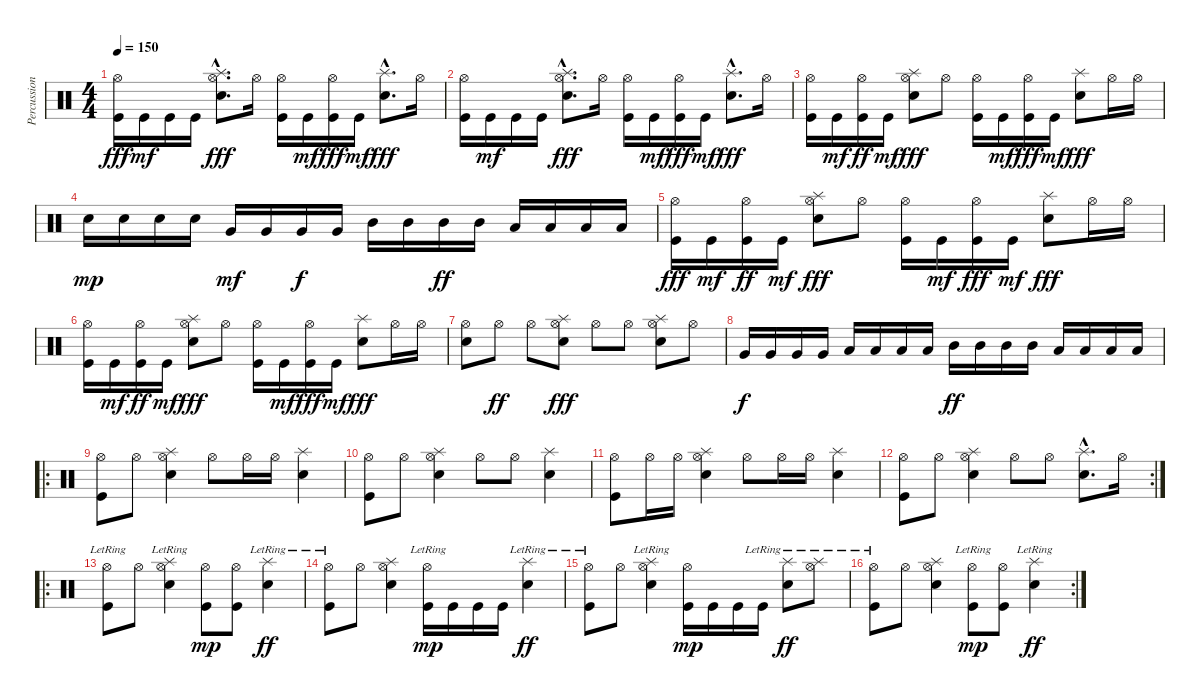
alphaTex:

\track ("Percussion" "Percussion") {instrument percussion}
\staff {score}
\articulation defaults
\ts (4 4)
\tempo 150
\clef neutral
\ks c
("Kick (hit)" "Hi-Hat (open)").16{dy fff} "Kick (hit)".16{dy mf} "Kick (hit)".16 "Kick (hit)".16 ("Snare (hit) 2"{hac} "Splash (hit)"{hac} "Hi-Hat (open)"{hac}).8{d dy fff} "Hi-Hat (open)".16 ("Kick (hit)" "Hi-Hat (open)").16 "Kick (hit)".16{dy mf} ("Kick (hit)" "Hi-Hat (open)").16{dy fff} "Kick (hit)".16{dy mf} ("Snare (hit) 2"{hac} "Splash (hit)"{hac}).8{d dy fff} "Hi-Hat (open)".16 |
("Kick (hit)" "Hi-Hat (open)").16 "Kick (hit)".16{dy mf} "Kick (hit)".16 "Kick (hit)".16 ("Snare (hit) 2"{hac} "Splash (hit)"{hac} "Hi-Hat (open)"{hac}).8{d dy fff} "Hi-Hat (open)".16 ("Kick (hit)" "Hi-Hat (open)").16 "Kick (hit)".16{dy mf} ("Kick (hit)" "Hi-Hat (open)").16{dy fff} "Kick (hit)".16{dy mf} ("Snare (hit) 2"{hac} "Splash (hit)"{hac}).8{d dy fff} "Hi-Hat (open)".16 |
("Kick (hit)" "Hi-Hat (open)").16 "Kick (hit)".16{dy mf} ("Kick (hit)" "Hi-Hat (open)").16{dy ff} "Kick (hit)".16{dy mf} ("Snare (hit) 2" "Splash (hit)" "Hi-Hat (open)").8{dy fff} "Hi-Hat (open)".8 ("Kick (hit)" "Hi-Hat (open)").16 "Kick (hit)".16{dy mf} ("Kick (hit)" "Hi-Hat (open)").16{dy fff} "Kick (hit)".16{dy mf} ("Snare (hit) 2" "Splash (hit)").8{dy fff} "Hi-Hat (open)".16 "Hi-Hat (open)".16 |
"Snare (hit) 2".16{dy mp} "Snare (hit) 2".16 "Snare (hit) 2".16 "Snare (hit) 2".16 "Very Low Tom (hit)".16{dy mf} "Very Low Tom (hit)".16 "Very Low Tom (hit)".16{dy f} "Very Low Tom (hit)".16 "Mid Tom (hit)".16 "Mid Tom (hit)".16 "Mid Tom (hit)".16{dy ff} "Mid Tom (hit)".16 "Low Tom (hit)".16 "Low Tom (hit)".16 "Low Tom (hit)".16 "Low Tom (hit)".16 |
("Kick (hit)" "Hi-Hat (open)").16{dy fff} "Kick (hit)".16{dy mf} ("Kick (hit)" "Hi-Hat (open)").16{dy ff} "Kick (hit)".16{dy mf} ("Snare (hit) 2" "Splash (hit)" "Hi-Hat (open)").8{dy fff} "Hi-Hat (open)".8 ("Kick (hit)" "Hi-Hat (open)").16 "Kick (hit)".16{dy mf} ("Kick (hit)" "Hi-Hat (open)").16{dy fff} "Kick (hit)".16{dy mf} ("Snare (hit) 2" "Splash (hit)").8{dy fff} "Hi-Hat (open)".16 "Hi-Hat (open)".16 |
("Kick (hit)" "Hi-Hat (open)").16 "Kick (hit)".16{dy mf} ("Kick (hit)" "Hi-Hat (open)").16{dy ff} "Kick (hit)".16{dy mf} ("Snare (hit) 2" "Splash (hit)" "Hi-Hat (open)").8{dy fff} "Hi-Hat (open)".8 ("Kick (hit)" "Hi-Hat (open)").16 "Kick (hit)".16{dy mf} ("Kick (hit)" "Hi-Hat (open)").16{dy fff} "Kick (hit)".16{dy mf} ("Snare (hit) 2" "Splash (hit)").8{dy fff} "Hi-Hat (open)".16 "Hi-Hat (open)".16 |
("Snare (hit) 2" "Hi-Hat (open)").8 "Hi-Hat (open)".8{dy ff} "Hi-Hat (open)".8 ("Snare (hit) 2" "Splash (hit)" "Hi-Hat (open)").8{dy fff} "Hi-Hat (open)".8 "Hi-Hat (open)".8 ("Snare (hit) 2" "Splash (hit)" "Hi-Hat (open)").8 "Hi-Hat (open)".8 |
"Very Low Tom (hit)".16{dy f} "Very Low Tom (hit)".16 "Very Low Tom (hit)".16 "Very Low Tom (hit)".16 "Low Tom (hit)".16 "Low Tom (hit)".16 "Low Tom (hit)".16 "Low Tom (hit)".16 "Mid Tom (hit)".16{dy ff} "Mid Tom (hit)".16 "Mid Tom (hit)".16 "Mid Tom (hit)".16 "Low Tom (hit)".16 "Low Tom (hit)".16 "Low Tom (hit)".16 "Low Tom (hit)".16 |
\ro
("Kick (hit)" "Hi-Hat (open)").8 "Hi-Hat (open)".8 ("Snare (hit) 2" "Hi-Hat (open)" "Splash (hit)").4 "Hi-Hat (open)".8 "Hi-Hat (open)".16 "Hi-Hat (open)".16 ("Snare (hit) 2" "Splash (hit)").4 |
("Kick (hit)" "Hi-Hat (open)").8 "Hi-Hat (open)".8 ("Snare (hit) 2" "Hi-Hat (open)" "Splash (hit)").4 "Hi-Hat (open)".8 "Hi-Hat (open)".8 ("Snare (hit) 2" "Splash (hit)").4 |
("Kick (hit)" "Hi-Hat (open)").8 "Hi-Hat (open)".16 "Hi-Hat (open)".16 ("Snare (hit) 2" "Hi-Hat (open)" "Splash (hit)").4 "Hi-Hat (open)".8 "Hi-Hat (open)".16 "Hi-Hat (open)".16 ("Snare (hit) 2" "Splash (hit)").4 |
\rc 2
("Kick (hit)" "Hi-Hat (open)").8 "Hi-Hat (open)".8 ("Snare (hit) 2" "Hi-Hat (open)" "Splash (hit)").4 "Hi-Hat (open)".8 "Hi-Hat (open)".8 ("Snare (hit) 2"{hac} "Splash (hit)"{hac}).8{d} "Hi-Hat (open)".16 |
\ro
("Kick (hit)" "Hi-Hat (open)"{lr}).8 "Hi-Hat (open)".8 ("Snare (hit) 2" "Hi-Hat (open)"{lr} "Splash (hit)").4 ("Hi-Hat (open)" "Kick (hit)").8{dy mp} ("Hi-Hat (open)" "Kick (hit)").8 ("Snare (hit) 2" "Splash (hit)"{lr}).4{dy ff} |
("Kick (hit)" "Hi-Hat (open)"{lr}).8 "Hi-Hat (open)".8 ("Snare (hit) 2" "Hi-Hat (open)" "Splash (hit)").4 ("Hi-Hat (open)"{lr} "Kick (hit)").16{dy mp} "Kick (hit)".16 "Kick (hit)".16 "Kick (hit)".16 ("Snare (hit) 2" "Splash (hit)"{lr}).4{dy ff} |
("Kick (hit)" "Hi-Hat (open)"{lr}).8 "Hi-Hat (open)".8 ("Snare (hit) 2" "Hi-Hat (open)" "Splash (hit)"{lr}).4 ("Hi-Hat (open)" "Kick (hit)").16{dy mp} "Kick (hit)".16 "Kick (hit)".16 "Kick (hit)"{lr}.16 ("Snare (hit) 2" "Splash (hit)"{lr}).8{dy ff} ("Hi-Hat (open)" "Splash (hit)"{lr}).8 |
\rc 2
("Kick (hit)" "Hi-Hat (open)"{lr}).8 "Hi-Hat (open)".8 ("Snare (hit) 2" "Hi-Hat (open)" "Splash (hit)").4 ("Hi-Hat (open)"{lr} "Kick (hit)").8{dy mp} ("Hi-Hat (open)" "Kick (hit)").8 ("Snare (hit) 2" "Splash (hit)"{lr}).4{dy ff}
